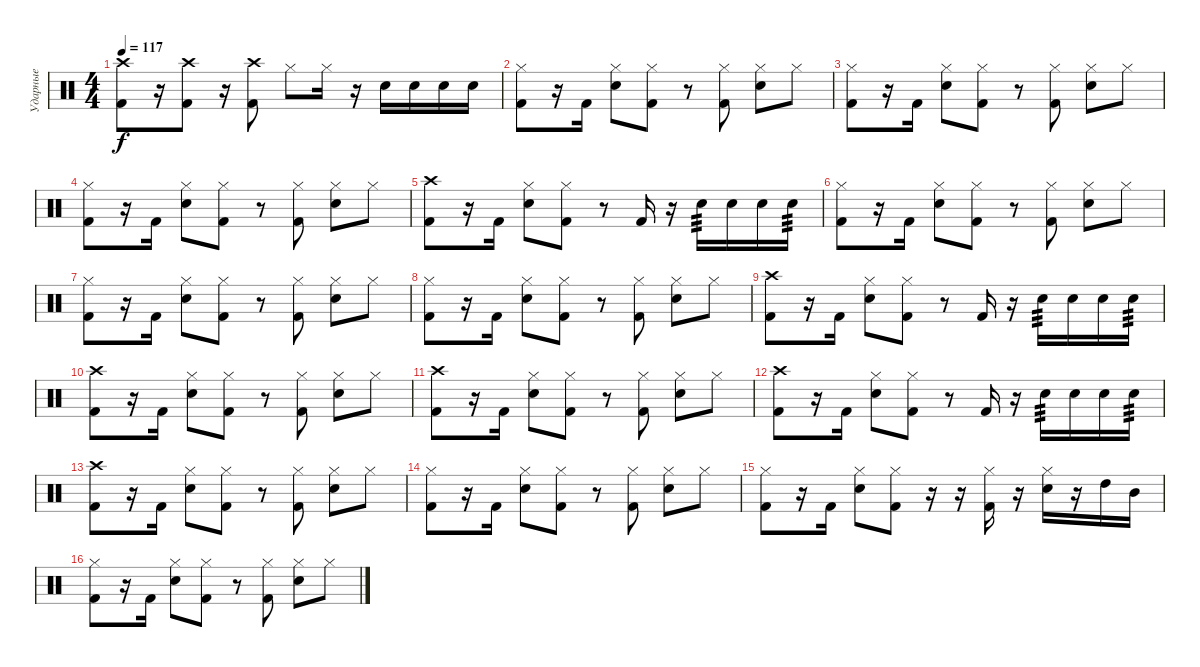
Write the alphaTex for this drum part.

\track ("Ударные" "Ударные") {instrument percussion}
\staff {score}
\articulation defaults
\ts (4 4)
\tempo 117
\clef neutral
\ks c
("Kick (hit) 2" "Crash high (hit)").8{dy f} r.16 ("Kick (hit) 2" "Crash high (hit)").8 r.16 ("Kick (hit) 2" "Crash high (hit)").8 "Hi-Hat (closed)".8 "Hi-Hat (closed)".16 r.16 "Electric Snare (hit)".16 "Electric Snare (hit)".16 "Electric Snare (hit)".16 "Electric Snare (hit)".16 |
("Kick (hit) 2" "Hi-Hat (closed)").8 r.16 "Kick (hit) 2".16 ("Electric Snare (hit)" "Hi-Hat (closed)").8 ("Kick (hit) 2" "Hi-Hat (closed)").8 r.8 ("Kick (hit) 2" "Hi-Hat (closed)").8 ("Electric Snare (hit)" "Hi-Hat (closed)").8 "Hi-Hat (closed)".8 |
("Kick (hit) 2" "Hi-Hat (closed)").8 r.16 "Kick (hit) 2".16 ("Electric Snare (hit)" "Hi-Hat (closed)").8 ("Kick (hit) 2" "Hi-Hat (closed)").8 r.8 ("Kick (hit) 2" "Hi-Hat (closed)").8 ("Electric Snare (hit)" "Hi-Hat (closed)").8 "Hi-Hat (closed)".8 |
("Kick (hit) 2" "Hi-Hat (closed)").8 r.16 "Kick (hit) 2".16 ("Electric Snare (hit)" "Hi-Hat (closed)").8 ("Kick (hit) 2" "Hi-Hat (closed)").8 r.8 ("Kick (hit) 2" "Hi-Hat (closed)").8 ("Electric Snare (hit)" "Hi-Hat (closed)").8 "Hi-Hat (closed)".8 |
("Kick (hit) 2" "Crash high (hit)").8 r.16 "Kick (hit) 2".16 ("Electric Snare (hit)" "Hi-Hat (closed)").8 ("Kick (hit) 2" "Hi-Hat (closed)").8 r.8 "Kick (hit) 2".16 r.16 "Electric Snare (hit)".16{tp 3} "Electric Snare (hit)".16 "Electric Snare (hit)".16 "Electric Snare (hit)".16{tp 3} |
("Kick (hit) 2" "Hi-Hat (closed)").8 r.16 "Kick (hit) 2".16 ("Electric Snare (hit)" "Hi-Hat (closed)").8 ("Kick (hit) 2" "Hi-Hat (closed)").8 r.8 ("Kick (hit) 2" "Hi-Hat (closed)").8 ("Electric Snare (hit)" "Hi-Hat (closed)").8 "Hi-Hat (closed)".8 |
("Kick (hit) 2" "Hi-Hat (closed)").8 r.16 "Kick (hit) 2".16 ("Electric Snare (hit)" "Hi-Hat (closed)").8 ("Kick (hit) 2" "Hi-Hat (closed)").8 r.8 ("Kick (hit) 2" "Hi-Hat (closed)").8 ("Electric Snare (hit)" "Hi-Hat (closed)").8 "Hi-Hat (closed)".8 |
("Kick (hit) 2" "Hi-Hat (closed)").8 r.16 "Kick (hit) 2".16 ("Electric Snare (hit)" "Hi-Hat (closed)").8 ("Kick (hit) 2" "Hi-Hat (closed)").8 r.8 ("Kick (hit) 2" "Hi-Hat (closed)").8 ("Electric Snare (hit)" "Hi-Hat (closed)").8 "Hi-Hat (closed)".8 |
("Kick (hit) 2" "Crash high (hit)").8 r.16 "Kick (hit) 2".16 ("Electric Snare (hit)" "Hi-Hat (closed)").8 ("Kick (hit) 2" "Hi-Hat (closed)").8 r.8 "Kick (hit) 2".16 r.16 "Electric Snare (hit)".16{tp 3} "Electric Snare (hit)".16 "Electric Snare (hit)".16 "Electric Snare (hit)".16{tp 3} |
("Kick (hit) 2" "Crash high (hit)").8 r.16 "Kick (hit) 2".16 ("Electric Snare (hit)" "Hi-Hat (closed)").8 ("Kick (hit) 2" "Hi-Hat (closed)").8 r.8 ("Kick (hit) 2" "Hi-Hat (closed)").8 ("Electric Snare (hit)" "Hi-Hat (closed)").8 "Hi-Hat (closed)".8 |
("Kick (hit) 2" "Crash high (hit)").8 r.16 "Kick (hit) 2".16 ("Electric Snare (hit)" "Hi-Hat (closed)").8 ("Kick (hit) 2" "Hi-Hat (closed)").8 r.8 ("Kick (hit) 2" "Hi-Hat (closed)").8 ("Electric Snare (hit)" "Hi-Hat (closed)").8 "Hi-Hat (closed)".8 |
("Kick (hit) 2" "Crash high (hit)").8 r.16 "Kick (hit) 2".16 ("Electric Snare (hit)" "Hi-Hat (closed)").8 ("Kick (hit) 2" "Hi-Hat (closed)").8 r.8 "Kick (hit) 2".16 r.16 "Electric Snare (hit)".16{tp 3} "Electric Snare (hit)".16 "Electric Snare (hit)".16 "Electric Snare (hit)".16{tp 3} |
("Kick (hit) 2" "Crash high (hit)").8 r.16 "Kick (hit) 2".16 ("Electric Snare (hit)" "Hi-Hat (closed)").8 ("Kick (hit) 2" "Hi-Hat (closed)").8 r.8 ("Kick (hit) 2" "Hi-Hat (closed)").8 ("Electric Snare (hit)" "Hi-Hat (closed)").8 "Hi-Hat (closed)".8 |
("Kick (hit) 2" "Hi-Hat (closed)").8 r.16 "Kick (hit) 2".16 ("Electric Snare (hit)" "Hi-Hat (closed)").8 ("Kick (hit) 2" "Hi-Hat (closed)").8 r.8 ("Kick (hit) 2" "Hi-Hat (closed)").8 ("Electric Snare (hit)" "Hi-Hat (closed)").8 "Hi-Hat (closed)".8 |
("Kick (hit) 2" "Hi-Hat (closed)").8 r.16 "Kick (hit) 2".16 ("Electric Snare (hit)" "Hi-Hat (closed)").8 ("Kick (hit) 2" "Hi-Hat (closed)").8 r.16 r.16 ("Kick (hit) 2" "Hi-Hat (closed)").16 r.16 ("Electric Snare (hit)" "Hi-Hat (closed)").16 r.16 "High Tom (hit)".16 "Mid Tom (hit)".16 |
("Kick (hit) 2" "Hi-Hat (closed)").8 r.16 "Kick (hit) 2".16 ("Electric Snare (hit)" "Hi-Hat (closed)").8 ("Kick (hit) 2" "Hi-Hat (closed)").8 r.8 ("Kick (hit) 2" "Hi-Hat (closed)").8 ("Electric Snare (hit)" "Hi-Hat (closed)").8 "Hi-Hat (closed)".8
